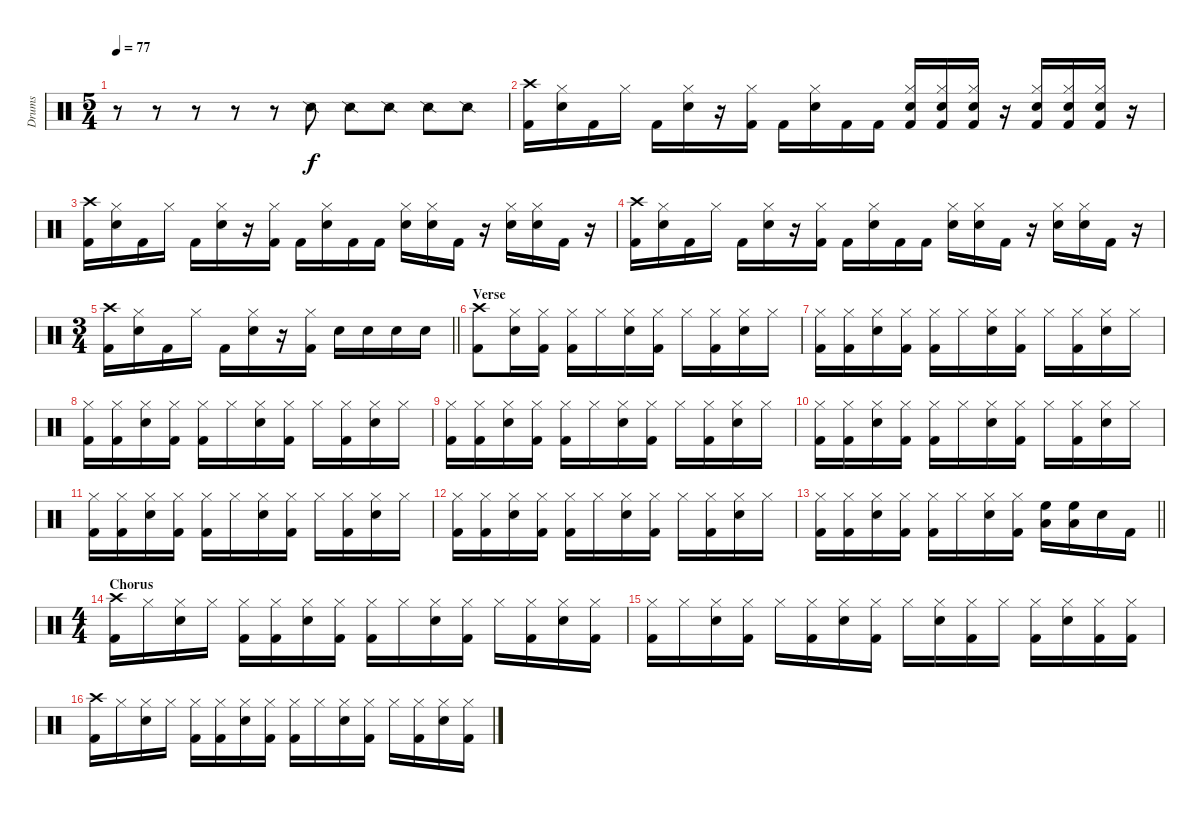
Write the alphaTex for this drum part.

\track ("Drums" "Drums") {instrument percussion}
\staff {score}
\articulation defaults
\ts (5 4)
\tempo 77
\clef neutral
\ks c
r.8{dy f} r.8 r.8 r.8 r.8 "Snare (side stick) 2".8 "Snare (side stick) 2".8 "Snare (side stick) 2".8 "Snare (side stick) 2".8 "Snare (side stick) 2".8 |
("Crash high (hit)" "Kick (hit) 2").16 ("Hi-Hat (closed)" "Snare (hit) 2").16 "Kick (hit) 2".16 "Hi-Hat (closed)".16 "Kick (hit) 2".16 ("Hi-Hat (closed)" "Snare (hit) 2").16 r.16 ("Hi-Hat (closed)" "Kick (hit) 2").16 "Kick (hit) 2".16 ("Hi-Hat (closed)" "Snare (hit) 2").16 "Kick (hit) 2".16 "Kick (hit) 2".16 ("Hi-Hat (closed)" "Snare (hit) 2" "Kick (hit) 2").16 ("Hi-Hat (closed)" "Snare (hit) 2" "Kick (hit) 2").16 ("Hi-Hat (closed)" "Snare (hit) 2" "Kick (hit) 2").16 r.16 ("Hi-Hat (closed)" "Snare (hit) 2" "Kick (hit) 2").16 ("Hi-Hat (closed)" "Snare (hit) 2" "Kick (hit) 2").16 ("Hi-Hat (closed)" "Snare (hit) 2" "Kick (hit) 2").16 r.16 |
("Crash high (hit)" "Kick (hit) 2").16 ("Hi-Hat (closed)" "Snare (hit) 2").16 "Kick (hit) 2".16 "Hi-Hat (closed)".16 "Kick (hit) 2".16 ("Hi-Hat (closed)" "Snare (hit) 2").16 r.16 ("Hi-Hat (closed)" "Kick (hit) 2").16 "Kick (hit) 2".16 ("Hi-Hat (closed)" "Snare (hit) 2").16 "Kick (hit) 2".16 "Kick (hit) 2".16 ("Hi-Hat (closed)" "Snare (hit) 2").16 ("Hi-Hat (closed)" "Snare (hit) 2").16 "Kick (hit) 2".16 r.16 ("Hi-Hat (closed)" "Snare (hit) 2").16 ("Hi-Hat (closed)" "Snare (hit) 2").16 "Kick (hit) 2".16 r.16 |
("Crash high (hit)" "Kick (hit) 2").16 ("Hi-Hat (closed)" "Snare (hit) 2").16 "Kick (hit) 2".16 "Hi-Hat (closed)".16 "Kick (hit) 2".16 ("Hi-Hat (closed)" "Snare (hit) 2").16 r.16 ("Hi-Hat (closed)" "Kick (hit) 2").16 "Kick (hit) 2".16 ("Hi-Hat (closed)" "Snare (hit) 2").16 "Kick (hit) 2".16 "Kick (hit) 2".16 ("Hi-Hat (closed)" "Snare (hit) 2").16 ("Hi-Hat (closed)" "Snare (hit) 2").16 "Kick (hit) 2".16 r.16 ("Hi-Hat (closed)" "Snare (hit) 2").16 ("Hi-Hat (closed)" "Snare (hit) 2").16 "Kick (hit) 2".16 r.16 |
\ts (3 4)
\barLineRight lightlight
("Crash high (hit)" "Kick (hit) 2").16 ("Hi-Hat (closed)" "Snare (hit) 2").16 "Kick (hit) 2".16 "Hi-Hat (closed)".16 "Kick (hit) 2".16 ("Hi-Hat (closed)" "Snare (hit) 2").16 r.16 ("Hi-Hat (closed)" "Kick (hit) 2").16 "Snare (hit) 2".16 "Snare (hit) 2".16 "Snare (hit) 2".16 "Snare (hit) 2".16 |
\section ("" "Verse")
("Crash high (hit)" "Kick (hit) 2").8 ("Hi-Hat (closed)" "Snare (hit) 2").16 ("Hi-Hat (closed)" "Kick (hit) 2").16 ("Hi-Hat (closed)" "Kick (hit) 2").16 "Hi-Hat (closed)".16 ("Hi-Hat (closed)" "Snare (hit) 2").16 ("Hi-Hat (closed)" "Kick (hit) 2").16 "Hi-Hat (closed)".16 ("Hi-Hat (closed)" "Kick (hit) 2").16 ("Hi-Hat (closed)" "Snare (hit) 2").16 "Hi-Hat (closed)".16 |
("Hi-Hat (closed)" "Kick (hit) 2").16 ("Hi-Hat (closed)" "Kick (hit) 2").16 ("Hi-Hat (closed)" "Snare (hit) 2").16 ("Hi-Hat (closed)" "Kick (hit) 2").16 ("Hi-Hat (closed)" "Kick (hit) 2").16 "Hi-Hat (closed)".16 ("Hi-Hat (closed)" "Snare (hit) 2").16 ("Hi-Hat (closed)" "Kick (hit) 2").16 "Hi-Hat (closed)".16 ("Hi-Hat (closed)" "Kick (hit) 2").16 ("Hi-Hat (closed)" "Snare (hit) 2").16 "Hi-Hat (closed)".16 |
("Hi-Hat (closed)" "Kick (hit) 2").16 ("Hi-Hat (closed)" "Kick (hit) 2").16 ("Hi-Hat (closed)" "Snare (hit) 2").16 ("Hi-Hat (closed)" "Kick (hit) 2").16 ("Hi-Hat (closed)" "Kick (hit) 2").16 "Hi-Hat (closed)".16 ("Hi-Hat (closed)" "Snare (hit) 2").16 ("Hi-Hat (closed)" "Kick (hit) 2").16 "Hi-Hat (closed)".16 ("Hi-Hat (closed)" "Kick (hit) 2").16 ("Hi-Hat (closed)" "Snare (hit) 2").16 "Hi-Hat (closed)".16 |
("Hi-Hat (closed)" "Kick (hit) 2").16 ("Hi-Hat (closed)" "Kick (hit) 2").16 ("Hi-Hat (closed)" "Snare (hit) 2").16 ("Hi-Hat (closed)" "Kick (hit) 2").16 ("Hi-Hat (closed)" "Kick (hit) 2").16 "Hi-Hat (closed)".16 ("Hi-Hat (closed)" "Snare (hit) 2").16 ("Hi-Hat (closed)" "Kick (hit) 2").16 "Hi-Hat (closed)".16 ("Hi-Hat (closed)" "Kick (hit) 2").16 ("Hi-Hat (closed)" "Snare (hit) 2").16 "Hi-Hat (closed)".16 |
("Hi-Hat (closed)" "Kick (hit) 2").16 ("Hi-Hat (closed)" "Kick (hit) 2").16 ("Hi-Hat (closed)" "Snare (hit) 2").16 ("Hi-Hat (closed)" "Kick (hit) 2").16 ("Hi-Hat (closed)" "Kick (hit) 2").16 "Hi-Hat (closed)".16 ("Hi-Hat (closed)" "Snare (hit) 2").16 ("Hi-Hat (closed)" "Kick (hit) 2").16 "Hi-Hat (closed)".16 ("Hi-Hat (closed)" "Kick (hit) 2").16 ("Hi-Hat (closed)" "Snare (hit) 2").16 "Hi-Hat (closed)".16 |
("Hi-Hat (closed)" "Kick (hit) 2").16 ("Hi-Hat (closed)" "Kick (hit) 2").16 ("Hi-Hat (closed)" "Snare (hit) 2").16 ("Hi-Hat (closed)" "Kick (hit) 2").16 ("Hi-Hat (closed)" "Kick (hit) 2").16 "Hi-Hat (closed)".16 ("Hi-Hat (closed)" "Snare (hit) 2").16 ("Hi-Hat (closed)" "Kick (hit) 2").16 "Hi-Hat (closed)".16 ("Hi-Hat (closed)" "Kick (hit) 2").16 ("Hi-Hat (closed)" "Snare (hit) 2").16 "Hi-Hat (closed)".16 |
("Hi-Hat (closed)" "Kick (hit) 2").16 ("Hi-Hat (closed)" "Kick (hit) 2").16 ("Hi-Hat (closed)" "Snare (hit) 2").16 ("Hi-Hat (closed)" "Kick (hit) 2").16 ("Hi-Hat (closed)" "Kick (hit) 2").16 "Hi-Hat (closed)".16 ("Hi-Hat (closed)" "Snare (hit) 2").16 ("Hi-Hat (closed)" "Kick (hit) 2").16 "Hi-Hat (closed)".16 ("Hi-Hat (closed)" "Kick (hit) 2").16 ("Hi-Hat (closed)" "Snare (hit) 2").16 "Hi-Hat (closed)".16 |
\barLineRight lightlight
("Hi-Hat (closed)" "Kick (hit) 2").16 ("Hi-Hat (closed)" "Kick (hit) 2").16 ("Hi-Hat (closed)" "Snare (hit) 2").16 ("Hi-Hat (closed)" "Kick (hit) 2").16 ("Hi-Hat (closed)" "Kick (hit) 2").16 "Hi-Hat (closed)".16 ("Hi-Hat (closed)" "Snare (hit) 2").16 ("Hi-Hat (closed)" "Kick (hit) 2").16 ("High Floor Tom (hit)" "Low Floor Tom (hit)").16 ("High Floor Tom (hit)" "Low Floor Tom (hit)").16 "Snare (hit) 2".16 "Kick (hit) 2".16 |
\ts (4 4)
\section ("" "Chorus")
("Crash high (hit)" "Kick (hit) 2").16 "Hi-Hat (closed)".16 ("Hi-Hat (closed)" "Snare (hit) 2").16 "Hi-Hat (closed)".16 ("Hi-Hat (closed)" "Kick (hit) 2").16 ("Hi-Hat (closed)" "Kick (hit) 2").16 ("Hi-Hat (closed)" "Snare (hit) 2").16 ("Hi-Hat (closed)" "Kick (hit) 2").16 ("Hi-Hat (closed)" "Kick (hit) 2").16 "Hi-Hat (closed)".16 ("Hi-Hat (closed)" "Snare (hit) 2").16 ("Hi-Hat (closed)" "Kick (hit) 2").16 "Hi-Hat (closed)".16 ("Hi-Hat (closed)" "Kick (hit) 2").16 ("Hi-Hat (closed)" "Snare (hit) 2").16 ("Hi-Hat (closed)" "Kick (hit) 2").16 |
("Hi-Hat (closed)" "Kick (hit) 2").16 "Hi-Hat (closed)".16 ("Hi-Hat (closed)" "Snare (hit) 2").16 ("Hi-Hat (closed)" "Kick (hit) 2").16 "Hi-Hat (closed)".16 ("Hi-Hat (closed)" "Kick (hit) 2").16 ("Hi-Hat (closed)" "Snare (hit) 2").16 ("Hi-Hat (closed)" "Kick (hit) 2").16 "Hi-Hat (closed)".16 ("Hi-Hat (closed)" "Snare (hit) 2").16 ("Hi-Hat (closed)" "Kick (hit) 2").16 "Hi-Hat (closed)".16 ("Hi-Hat (closed)" "Kick (hit) 2").16 ("Hi-Hat (closed)" "Snare (hit) 2").16 ("Hi-Hat (closed)" "Kick (hit) 2").16 ("Hi-Hat (closed)" "Kick (hit) 2").16 |
("Crash high (hit)" "Kick (hit) 2").16 "Hi-Hat (closed)".16 ("Hi-Hat (closed)" "Snare (hit) 2").16 "Hi-Hat (closed)".16 ("Hi-Hat (closed)" "Kick (hit) 2").16 ("Hi-Hat (closed)" "Kick (hit) 2").16 ("Hi-Hat (closed)" "Snare (hit) 2").16 ("Hi-Hat (closed)" "Kick (hit) 2").16 ("Hi-Hat (closed)" "Kick (hit) 2").16 "Hi-Hat (closed)".16 ("Hi-Hat (closed)" "Snare (hit) 2").16 ("Hi-Hat (closed)" "Kick (hit) 2").16 "Hi-Hat (closed)".16 ("Hi-Hat (closed)" "Kick (hit) 2").16 ("Hi-Hat (closed)" "Snare (hit) 2").16 ("Hi-Hat (closed)" "Kick (hit) 2").16
